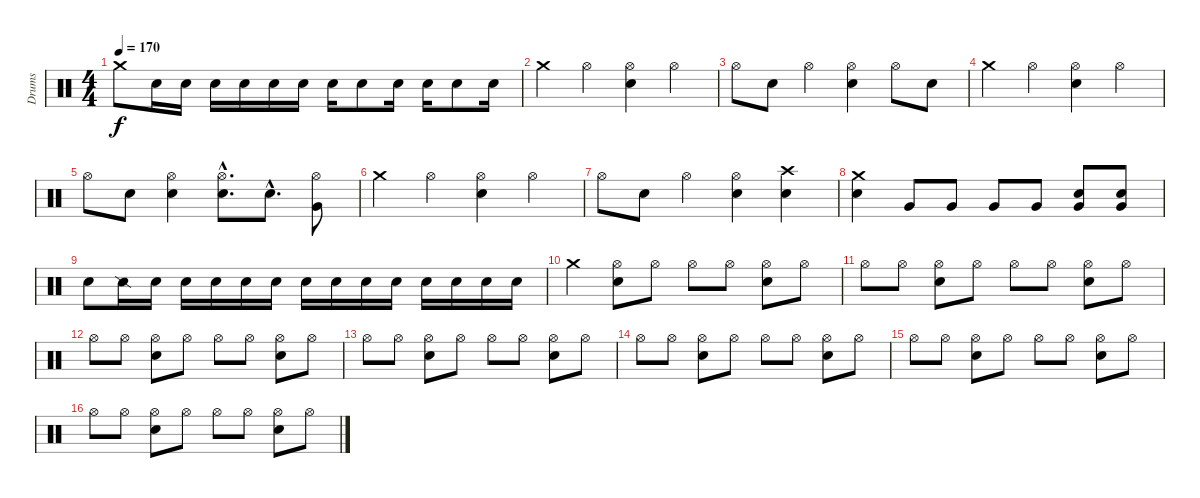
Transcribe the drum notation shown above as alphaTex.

\track ("Drums" "Drums") {instrument percussion}
\staff {score}
\articulation defaults
\ts (4 4)
\tempo 170
\clef neutral
\ks c "Crash medium (hit)".8{dy f} "Electric Snare (hit)".16 "Electric Snare (hit)".16 "Electric Snare (hit)".16 "Electric Snare (hit)".16 "Electric Snare (hit)".16 "Electric Snare (hit)".16 "Electric Snare (hit)".16 "Electric Snare (hit)".8 "Electric Snare (hit)".16 "Electric Snare (hit)".16 "Electric Snare (hit)".8 "Electric Snare (hit)".16
|
"Crash medium (hit)".4 "Hi-Hat (open)".4 ("Electric Snare (hit)" "Hi-Hat (open)").4 "Hi-Hat (open)".4 |
"Hi-Hat (open)".8 "Electric Snare (hit)".8 "Hi-Hat (open)".4 ("Electric Snare (hit)" "Hi-Hat (open)").4 "Hi-Hat (open)".8 "Electric Snare (hit)".8 |
"Crash medium (hit)".4 "Hi-Hat (open)".4 ("Electric Snare (hit)" "Hi-Hat (open)").4 "Hi-Hat (open)".4 |
"Hi-Hat (open)".8 "Electric Snare (hit)".8 ("Snare (hit)" "Hi-Hat (open)").4 ("Electric Snare (hit)"{hac} "Hi-Hat (open)"{hac}).8{d} "Electric Snare (hit)"{hac}.8{d} ("Very Low Tom (hit)" "Hi-Hat (open)").8 |
"Crash medium (hit)".4 "Hi-Hat (open)".4 ("Electric Snare (hit)" "Hi-Hat (open)").4 "Hi-Hat (open)".4 |
"Hi-Hat (open)".8 "Electric Snare (hit)".8 "Hi-Hat (open)".4 ("Electric Snare (hit)" "Hi-Hat (open)").4 ("Electric Snare (hit)" "Crash high (hit)").4 |
("Electric Snare (hit)" "Crash medium (hit)").4 "Very Low Tom (hit)".8 "Very Low Tom (hit)".8 "Very Low Tom (hit)".8 "Very Low Tom (hit)".8 ("Electric Snare (hit)" "Very Low Tom (hit)").8 ("Electric Snare (hit)" "Very Low Tom (hit)").8 |
"Electric Snare (hit)".8 "Snare (side stick) 2".16 "Electric Snare (hit)".16 "Electric Snare (hit)".16 "Electric Snare (hit)".16 "Electric Snare (hit)".16 "Electric Snare (hit)".16 "Electric Snare (hit)".16 "Electric Snare (hit)".16 "Electric Snare (hit)".16 "Electric Snare (hit)".16 "Electric Snare (hit)".16 "Electric Snare (hit)".16 "Electric Snare (hit)".16 "Electric Snare (hit)".16 |
"Crash medium (hit)".4 ("Electric Snare (hit)" "Hi-Hat (open)").8 "Hi-Hat (open)".8 "Hi-Hat (open)".8 "Hi-Hat (open)".8 ("Electric Snare (hit)" "Hi-Hat (open)").8 "Hi-Hat (open)".8 |
"Hi-Hat (open)".8 "Hi-Hat (open)".8 ("Electric Snare (hit)" "Hi-Hat (open)").8 "Hi-Hat (open)".8 "Hi-Hat (open)".8 "Hi-Hat (open)".8 ("Electric Snare (hit)" "Hi-Hat (open)").8 "Hi-Hat (open)".8 |
"Hi-Hat (open)".8 "Hi-Hat (open)".8 ("Electric Snare (hit)" "Hi-Hat (open)").8 "Hi-Hat (open)".8 "Hi-Hat (open)".8 "Hi-Hat (open)".8 ("Electric Snare (hit)" "Hi-Hat (open)").8 "Hi-Hat (open)".8 |
"Hi-Hat (open)".8 "Hi-Hat (open)".8 ("Electric Snare (hit)" "Hi-Hat (open)").8 "Hi-Hat (open)".8 "Hi-Hat (open)".8 "Hi-Hat (open)".8 ("Electric Snare (hit)" "Hi-Hat (open)").8 "Hi-Hat (open)".8 |
"Hi-Hat (open)".8 "Hi-Hat (open)".8 ("Electric Snare (hit)" "Hi-Hat (open)").8 "Hi-Hat (open)".8 "Hi-Hat (open)".8 "Hi-Hat (open)".8 ("Electric Snare (hit)" "Hi-Hat (open)").8 "Hi-Hat (open)".8 |
"Hi-Hat (open)".8 "Hi-Hat (open)".8 ("Electric Snare (hit)" "Hi-Hat (open)").8 "Hi-Hat (open)".8 "Hi-Hat (open)".8 "Hi-Hat (open)".8 ("Electric Snare (hit)" "Hi-Hat (open)").8 "Hi-Hat (open)".8 |
"Hi-Hat (open)".8 "Hi-Hat (open)".8 ("Electric Snare (hit)" "Hi-Hat (open)").8 "Hi-Hat (open)".8 "Hi-Hat (open)".8 "Hi-Hat (open)".8 ("Electric Snare (hit)" "Hi-Hat (open)").8 "Hi-Hat (open)".8
